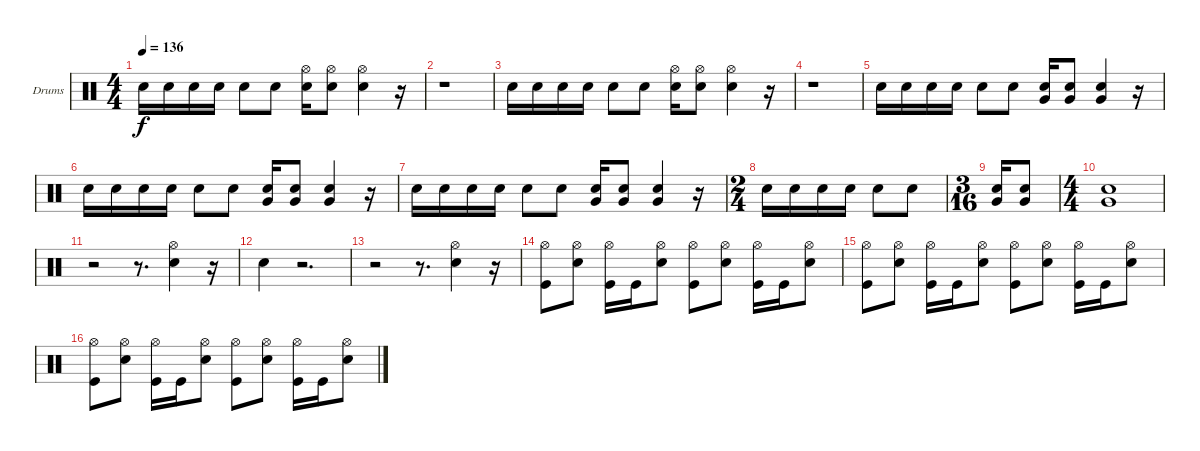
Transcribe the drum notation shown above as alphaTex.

\defaultSystemsLayout 4
\bracketExtendMode groupsimilarinstruments
\firstSystemTrackNameOrientation horizontal
\otherSystemsTrackNameOrientation horizontal
\track ("Lars Ulrich (Drums)" "Drums") {instrument percussion}
\staff {score}
\articulation defaults
\ts (4 4)
\tempo 136
\clef neutral
\ks c "Snare (hit) 2".16{dy f} "Snare (hit) 2".16 "Snare (hit) 2".16 "Snare (hit) 2".16 "Snare (hit) 2".8 "Snare (hit) 2".8
("Hi-Hat (open)" "Snare (hit) 2").16 ("Hi-Hat (open)" "Snare (hit) 2").8 ("Hi-Hat (open)" "Snare (hit) 2").4 r.16 |
r.1 |
"Snare (hit) 2".16 "Snare (hit) 2".16 "Snare (hit) 2".16 "Snare (hit) 2".16 "Snare (hit) 2".8 "Snare (hit) 2".8 ("Hi-Hat (open)" "Snare (hit) 2").16 ("Hi-Hat (open)" "Snare (hit) 2").8 ("Hi-Hat (open)" "Snare (hit) 2").4 r.16 |
r.1 |
"Snare (hit) 2".16 "Snare (hit) 2".16 "Snare (hit) 2".16 "Snare (hit) 2".16 "Snare (hit) 2".8 "Snare (hit) 2".8 ("Snare (hit) 2" "Very Low Tom (hit)").16 ("Snare (hit) 2" "Very Low Tom (hit)").8 ("Snare (hit) 2" "Very Low Tom (hit)").4 r.16 |
"Snare (hit) 2".16 "Snare (hit) 2".16 "Snare (hit) 2".16 "Snare (hit) 2".16 "Snare (hit) 2".8 "Snare (hit) 2".8 ("Snare (hit) 2" "Very Low Tom (hit)").16 ("Snare (hit) 2" "Very Low Tom (hit)").8 ("Snare (hit) 2" "Very Low Tom (hit)").4 r.16 |
"Snare (hit) 2".16 "Snare (hit) 2".16 "Snare (hit) 2".16 "Snare (hit) 2".16 "Snare (hit) 2".8 "Snare (hit) 2".8 ("Snare (hit) 2" "Very Low Tom (hit)").16 ("Snare (hit) 2" "Very Low Tom (hit)").8 ("Snare (hit) 2" "Very Low Tom (hit)").4 r.16 |
\ts (2 4)
"Snare (hit) 2".16 "Snare (hit) 2".16 "Snare (hit) 2".16 "Snare (hit) 2".16 "Snare (hit) 2".8 "Snare (hit) 2".8 |
\ts (3 16)
("Snare (hit) 2" "Very Low Tom (hit)").16 ("Snare (hit) 2" "Very Low Tom (hit)").8 |
\ts (4 4)
("Snare (hit) 2" "Very Low Tom (hit)").1 |
r.2 r.8{d} ("Hi-Hat (open)" "Snare (hit) 2").4 r.16 |
"Snare (hit) 2".4 r.2{d} |
r.2 r.8{d} ("Hi-Hat (open)" "Snare (hit) 2").4 r.16 |
("Hi-Hat (open)" "Kick (hit)").8 ("Hi-Hat (open)" "Snare (hit) 2").8 ("Hi-Hat (open)" "Kick (hit)").16 "Kick (hit)".16 ("Hi-Hat (open)" "Snare (hit) 2").8 ("Hi-Hat (open)" "Kick (hit)").8 ("Hi-Hat (open)" "Snare (hit) 2").8 ("Hi-Hat (open)" "Kick (hit)").16 "Kick (hit)".16 ("Hi-Hat (open)" "Snare (hit) 2").8 |
("Hi-Hat (open)" "Kick (hit)").8 ("Hi-Hat (open)" "Snare (hit) 2").8 ("Hi-Hat (open)" "Kick (hit)").16 "Kick (hit)".16 ("Hi-Hat (open)" "Snare (hit) 2").8 ("Hi-Hat (open)" "Kick (hit)").8 ("Hi-Hat (open)" "Snare (hit) 2").8 ("Hi-Hat (open)" "Kick (hit)").16 "Kick (hit)".16 ("Hi-Hat (open)" "Snare (hit) 2").8 |
("Hi-Hat (open)" "Kick (hit)").8 ("Hi-Hat (open)" "Snare (hit) 2").8 ("Hi-Hat (open)" "Kick (hit)").16 "Kick (hit)".16 ("Hi-Hat (open)" "Snare (hit) 2").8 ("Hi-Hat (open)" "Kick (hit)").8 ("Hi-Hat (open)" "Snare (hit) 2").8 ("Hi-Hat (open)" "Kick (hit)").16 "Kick (hit)".16 ("Hi-Hat (open)" "Snare (hit) 2").8
